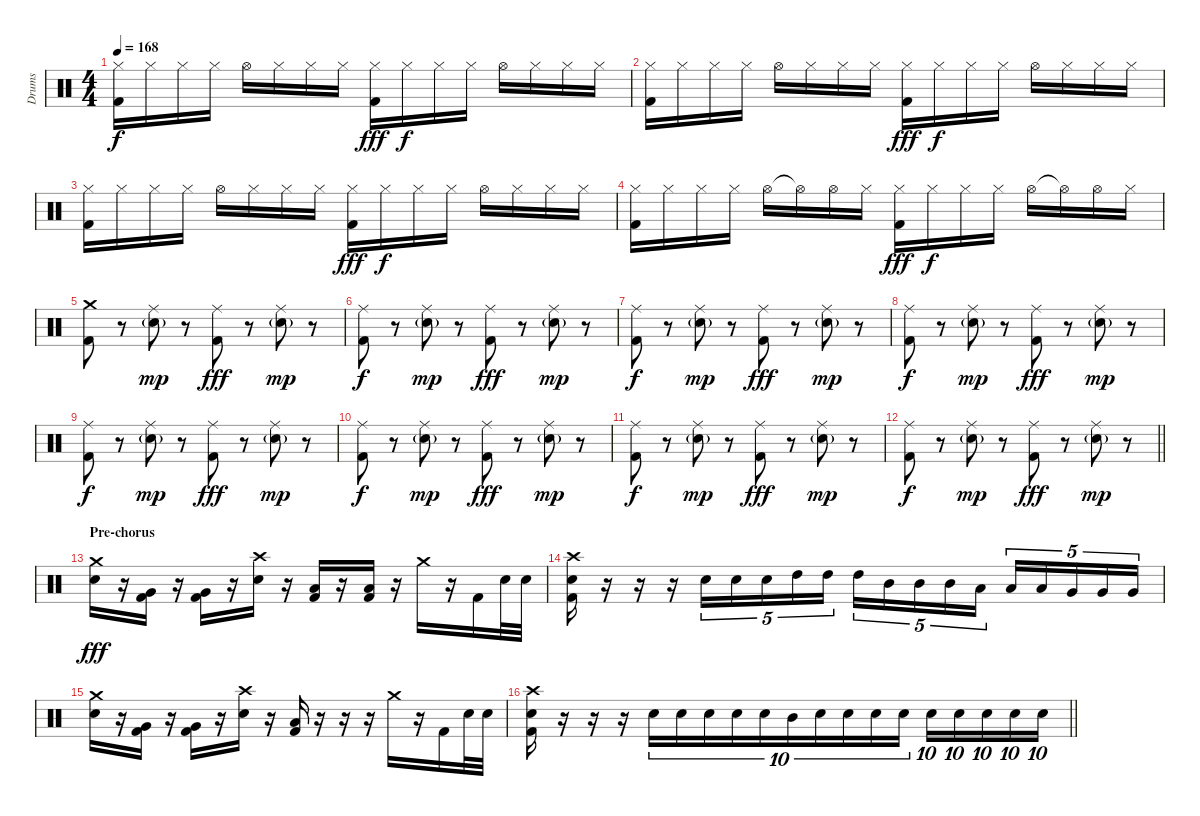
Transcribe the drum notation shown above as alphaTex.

\track ("Drums" "Drums") {instrument percussion}
\staff {score}
\articulation defaults
\ts (4 4)
\tempo 168
\clef neutral
\ks c
("Hi-Hat (closed)" "Kick (hit) 2").16{dy f} "Hi-Hat (closed)".16 "Hi-Hat (closed)".16 "Hi-Hat (closed)".16 "Hi-Hat (open)".16 "Hi-Hat (closed)".16 "Hi-Hat (closed)".16 "Hi-Hat (closed)".16 ("Hi-Hat (closed)" "Kick (hit) 2").16{dy fff} "Hi-Hat (closed)".16{dy f} "Hi-Hat (closed)".16 "Hi-Hat (closed)".16 "Hi-Hat (open)".16 "Hi-Hat (closed)".16 "Hi-Hat (closed)".16 "Hi-Hat (closed)".16 |
("Hi-Hat (closed)" "Kick (hit) 2").16 "Hi-Hat (closed)".16 "Hi-Hat (closed)".16 "Hi-Hat (closed)".16 "Hi-Hat (open)".16 "Hi-Hat (closed)".16 "Hi-Hat (closed)".16 "Hi-Hat (closed)".16 ("Hi-Hat (closed)" "Kick (hit) 2").16{dy fff} "Hi-Hat (closed)".16{dy f} "Hi-Hat (closed)".16 "Hi-Hat (closed)".16 "Hi-Hat (open)".16 "Hi-Hat (closed)".16 "Hi-Hat (closed)".16 "Hi-Hat (closed)".16 |
("Hi-Hat (closed)" "Kick (hit) 2").16 "Hi-Hat (closed)".16 "Hi-Hat (closed)".16 "Hi-Hat (closed)".16 "Hi-Hat (open)".16 "Hi-Hat (closed)".16 "Hi-Hat (closed)".16 "Hi-Hat (closed)".16 ("Hi-Hat (closed)" "Kick (hit) 2").16{dy fff} "Hi-Hat (closed)".16{dy f} "Hi-Hat (closed)".16 "Hi-Hat (closed)".16 "Hi-Hat (open)".16 "Hi-Hat (closed)".16 "Hi-Hat (closed)".16 "Hi-Hat (closed)".16 |
("Hi-Hat (closed)" "Kick (hit) 2").16 "Hi-Hat (closed)".16 "Hi-Hat (closed)".16 "Hi-Hat (closed)".16 "Hi-Hat (open)".16 "Hi-Hat (open)"{t}.16 "Hi-Hat (open)".16 "Hi-Hat (closed)".16 ("Hi-Hat (closed)" "Kick (hit) 2").16{dy fff} "Hi-Hat (closed)".16{dy f} "Hi-Hat (closed)".16 "Hi-Hat (closed)".16 "Hi-Hat (open)".16 "Hi-Hat (open)"{t}.16 "Hi-Hat (open)".16 "Hi-Hat (closed)".16 |
("Crash medium (hit)" "Kick (hit) 2").8 r.8 ("Ride (middle)" "Snare (hit) 2"{g}).8{dy mp} r.8 ("Ride (middle)" "Kick (hit) 2").8{dy fff} r.8 ("Ride (middle)" "Snare (hit) 2"{g}).8{dy mp} r.8 |
("Ride (middle)" "Kick (hit) 2").8{dy f} r.8 ("Ride (middle)" "Snare (hit) 2"{g}).8{dy mp} r.8 ("Ride (middle)" "Kick (hit) 2").8{dy fff} r.8 ("Ride (middle)" "Snare (hit) 2"{g}).8{dy mp} r.8 |
("Ride (middle)" "Kick (hit) 2").8{dy f} r.8 ("Ride (middle)" "Snare (hit) 2"{g}).8{dy mp} r.8 ("Ride (middle)" "Kick (hit) 2").8{dy fff} r.8 ("Ride (middle)" "Snare (hit) 2"{g}).8{dy mp} r.8 |
("Ride (middle)" "Kick (hit) 2").8{dy f} r.8 ("Ride (middle)" "Snare (hit) 2"{g}).8{dy mp} r.8 ("Ride (middle)" "Kick (hit) 2").8{dy fff} r.8 ("Ride (middle)" "Snare (hit) 2"{g}).8{dy mp} r.8 |
("Ride (middle)" "Kick (hit) 2").8{dy f} r.8 ("Ride (middle)" "Snare (hit) 2"{g}).8{dy mp} r.8 ("Ride (middle)" "Kick (hit) 2").8{dy fff} r.8 ("Ride (middle)" "Snare (hit) 2"{g}).8{dy mp} r.8 |
("Ride (middle)" "Kick (hit) 2").8{dy f} r.8 ("Ride (middle)" "Snare (hit) 2"{g}).8{dy mp} r.8 ("Ride (middle)" "Kick (hit) 2").8{dy fff} r.8 ("Ride (middle)" "Snare (hit) 2"{g}).8{dy mp} r.8 |
("Ride (middle)" "Kick (hit) 2").8{dy f} r.8 ("Ride (middle)" "Snare (hit) 2"{g}).8{dy mp} r.8 ("Ride (middle)" "Kick (hit) 2").8{dy fff} r.8 ("Ride (middle)" "Snare (hit) 2"{g}).8{dy mp} r.8 |
\barLineRight lightlight
("Ride (middle)" "Kick (hit) 2").8{dy f} r.8 ("Ride (middle)" "Snare (hit) 2"{g}).8{dy mp} r.8 ("Ride (middle)" "Kick (hit) 2").8{dy fff} r.8 ("Ride (middle)" "Snare (hit) 2"{g}).8{dy mp} r.8 |
\section ("" "Pre-chorus")
("Crash medium (hit)" "Snare (hit) 2").16{dy fff} r.16 ("Very Low Tom (hit)" "Kick (hit) 2").16 r.16 ("Very Low Tom (hit)" "Kick (hit) 2").16 r.16 ("Crash high (hit)" "Snare (hit) 2").16 r.16 ("Low Floor Tom (hit)" "Kick (hit) 2").16 r.16 ("Low Floor Tom (hit)" "Kick (hit) 2").16 r.16 "Crash medium (hit)".16 r.16 "Kick (hit) 2".16 "Snare (hit) 2".32 "Snare (hit) 2".32 |
("Crash high (hit)" "Snare (hit) 2" "Kick (hit) 2").16 r.16 r.16 r.16 "Snare (hit) 2".16{tu (5 4)} "Snare (hit) 2".16{tu (5 4)} "Snare (hit) 2".16{tu (5 4)} "High Tom (hit)".16{tu (5 4)} "High Tom (hit)".16{tu (5 4)} "High Tom (hit)".16{tu (5 4)} "Mid Tom (hit)".16{tu (5 4)} "Mid Tom (hit)".16{tu (5 4)} "Mid Tom (hit)".16{tu (5 4)} "Low Tom (hit)".16{tu (5 4)} "Low Tom (hit)".16{tu (5 4)} "Low Tom (hit)".16{tu (5 4)} "Very Low Tom (hit)".16{tu (5 4)} "Very Low Tom (hit)".16{tu (5 4)} "Very Low Tom (hit)".16{tu (5 4)} |
("Crash medium (hit)" "Snare (hit) 2").16 r.16 ("Very Low Tom (hit)" "Kick (hit) 2").16 r.16 ("Very Low Tom (hit)" "Kick (hit) 2").16 r.16 ("Crash high (hit)" "Snare (hit) 2").16 r.16 ("Low Floor Tom (hit)" "Kick (hit) 2").16 r.16 r.16 r.16 "Crash medium (hit)".16 r.16 "Kick (hit) 2".16 "Snare (hit) 2".32 "Snare (hit) 2".32 |
\barLineRight lightlight
("Crash high (hit)" "Snare (hit) 2" "Kick (hit) 2").16 r.16 r.16 r.16 "Snare (hit) 2".16{tu (10 8)} "Snare (hit) 2".16{tu (10 8)} "Snare (hit) 2".16{tu (10 8)} "Snare (hit) 2".16{tu (10 8)} "Snare (hit) 2".16{tu (10 8)} "Mid Tom (hit)".16{tu (10 8)} "Snare (hit) 2".16{tu (10 8)} "Snare (hit) 2".16{tu (10 8)} "Snare (hit) 2".16{tu (10 8)} "Snare (hit) 2".16{tu (10 8)} "Snare (hit) 2".16{tu (10 8)} "Snare (hit) 2".16{tu (10 8)} "Snare (hit) 2".16{tu (10 8)} "Snare (hit) 2".16{tu (10 8)} "Snare (hit) 2".16{tu (10 8)}
